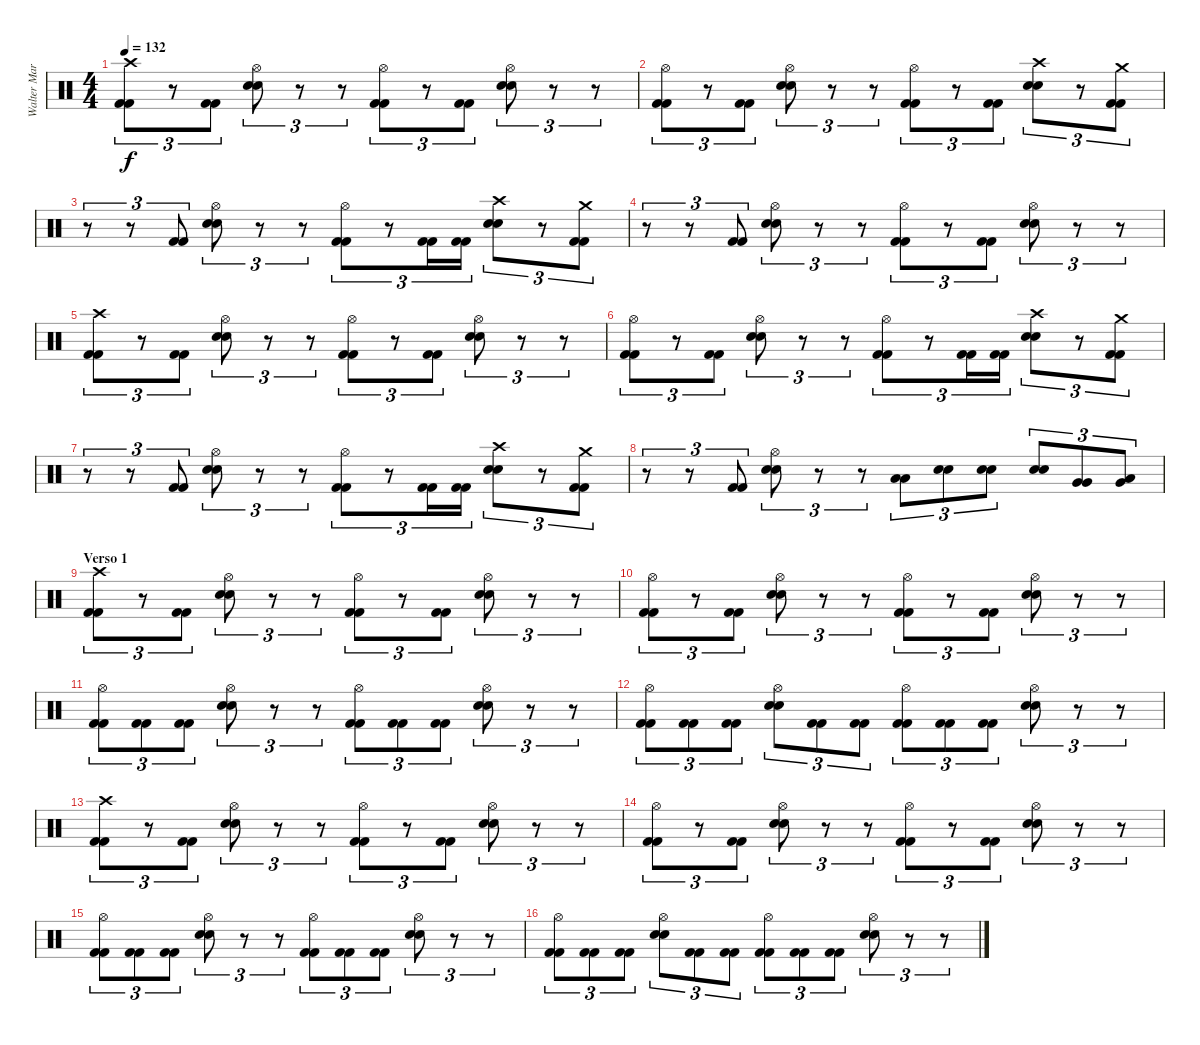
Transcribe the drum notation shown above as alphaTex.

\track ("Walter Martinez (bateria)" "Walter Mar") {instrument percussion}
\staff {score}
\articulation defaults
\ts (4 4)
\tempo 132
\clef neutral
\ks c
("Crash high (hit)" "Kick (hit) 2" "Kick (hit) 2").8{tu (3 2) dy f} r.8{tu (3 2)} ("Kick (hit) 2" "Kick (hit) 2").8{tu (3 2)} ("Hi-Hat (open)" "Snare (hit) 2" "Snare (hit) 2").8{tu (3 2)} r.8{tu (3 2)} r.8{tu (3 2)} ("Hi-Hat (open)" "Kick (hit) 2" "Kick (hit) 2").8{tu (3 2)} r.8{tu (3 2)} ("Kick (hit) 2" "Kick (hit) 2").8{tu (3 2)} ("Hi-Hat (open)" "Snare (hit) 2" "Snare (hit) 2").8{tu (3 2)} r.8{tu (3 2)} r.8{tu (3 2)} |
("Hi-Hat (open)" "Kick (hit) 2" "Kick (hit) 2").8{tu (3 2)} r.8{tu (3 2)} ("Kick (hit) 2" "Kick (hit) 2").8{tu (3 2)} ("Hi-Hat (open)" "Snare (hit) 2" "Snare (hit) 2").8{tu (3 2)} r.8{tu (3 2)} r.8{tu (3 2)} ("Hi-Hat (open)" "Kick (hit) 2" "Kick (hit) 2").8{tu (3 2)} r.8{tu (3 2)} ("Kick (hit) 2" "Kick (hit) 2").8{tu (3 2)} ("Crash high (hit)" "Snare (hit) 2" "Snare (hit) 2").8{tu (3 2)} r.8{tu (3 2)} ("Crash medium (hit)" "Kick (hit) 2" "Kick (hit) 2").8{tu (3 2)} |
r.8{tu (3 2)} r.8{tu (3 2)} ("Kick (hit) 2" "Kick (hit) 2").8{tu (3 2)} ("Hi-Hat (open)" "Snare (hit) 2" "Snare (hit) 2").8{tu (3 2)} r.8{tu (3 2)} r.8{tu (3 2)} ("Hi-Hat (open)" "Kick (hit) 2" "Kick (hit) 2").8{tu (3 2)} r.8{tu (3 2)} ("Kick (hit) 2" "Kick (hit) 2").16{tu (3 2)} ("Kick (hit) 2" "Kick (hit) 2").16{tu (3 2)} ("Crash high (hit)" "Snare (hit) 2" "Snare (hit) 2").8{tu (3 2)} r.8{tu (3 2)} ("Crash medium (hit)" "Kick (hit) 2" "Kick (hit) 2").8{tu (3 2)} |
r.8{tu (3 2)} r.8{tu (3 2)} ("Kick (hit) 2" "Kick (hit) 2").8{tu (3 2)} ("Hi-Hat (open)" "Snare (hit) 2" "Snare (hit) 2").8{tu (3 2)} r.8{tu (3 2)} r.8{tu (3 2)} ("Hi-Hat (open)" "Kick (hit) 2" "Kick (hit) 2").8{tu (3 2)} r.8{tu (3 2)} ("Kick (hit) 2" "Kick (hit) 2").8{tu (3 2)} ("Hi-Hat (open)" "Snare (hit) 2" "Snare (hit) 2").8{tu (3 2)} r.8{tu (3 2)} r.8{tu (3 2)} |
("Crash high (hit)" "Kick (hit) 2" "Kick (hit) 2").8{tu (3 2)} r.8{tu (3 2)} ("Kick (hit) 2" "Kick (hit) 2").8{tu (3 2)} ("Hi-Hat (open)" "Snare (hit) 2" "Snare (hit) 2").8{tu (3 2)} r.8{tu (3 2)} r.8{tu (3 2)} ("Hi-Hat (open)" "Kick (hit) 2" "Kick (hit) 2").8{tu (3 2)} r.8{tu (3 2)} ("Kick (hit) 2" "Kick (hit) 2").8{tu (3 2)} ("Hi-Hat (open)" "Snare (hit) 2" "Snare (hit) 2").8{tu (3 2)} r.8{tu (3 2)} r.8{tu (3 2)} |
("Hi-Hat (open)" "Kick (hit) 2" "Kick (hit) 2").8{tu (3 2)} r.8{tu (3 2)} ("Kick (hit) 2" "Kick (hit) 2").8{tu (3 2)} ("Hi-Hat (open)" "Snare (hit) 2" "Snare (hit) 2").8{tu (3 2)} r.8{tu (3 2)} r.8{tu (3 2)} ("Hi-Hat (open)" "Kick (hit) 2" "Kick (hit) 2").8{tu (3 2)} r.8{tu (3 2)} ("Kick (hit) 2" "Kick (hit) 2").16{tu (3 2)} ("Kick (hit) 2" "Kick (hit) 2").16{tu (3 2)} ("Crash high (hit)" "Snare (hit) 2" "Snare (hit) 2").8{tu (3 2)} r.8{tu (3 2)} ("Crash medium (hit)" "Kick (hit) 2" "Kick (hit) 2").8{tu (3 2)} |
r.8{tu (3 2)} r.8{tu (3 2)} ("Kick (hit) 2" "Kick (hit) 2").8{tu (3 2)} ("Hi-Hat (open)" "Snare (hit) 2" "Snare (hit) 2").8{tu (3 2)} r.8{tu (3 2)} r.8{tu (3 2)} ("Hi-Hat (open)" "Kick (hit) 2" "Kick (hit) 2").8{tu (3 2)} r.8{tu (3 2)} ("Kick (hit) 2" "Kick (hit) 2").16{tu (3 2)} ("Kick (hit) 2" "Kick (hit) 2").16{tu (3 2)} ("Crash high (hit)" "Snare (hit) 2" "Snare (hit) 2").8{tu (3 2)} r.8{tu (3 2)} ("Crash medium (hit)" "Kick (hit) 2" "Kick (hit) 2").8{tu (3 2)} |
r.8{tu (3 2)} r.8{tu (3 2)} ("Kick (hit) 2" "Kick (hit) 2").8{tu (3 2)} ("Hi-Hat (open)" "Snare (hit) 2" "Snare (hit) 2").8{tu (3 2)} r.8{tu (3 2)} r.8{tu (3 2)} ("Low Tom (hit)" "Low Tom (hit)").8{tu (3 2)} ("Snare (hit) 2" "Snare (hit) 2").8{tu (3 2)} ("Snare (hit) 2" "Snare (hit) 2").8{tu (3 2)} ("Snare (hit) 2" "Snare (hit) 2").8{tu (3 2)} ("Very Low Tom (hit)" "Very Low Tom (hit)").8{tu (3 2)} ("Very Low Tom (hit)" "Low Floor Tom (hit)").8{tu (3 2)} |
\section ("" "Verso 1")
("Crash high (hit)" "Kick (hit) 2" "Kick (hit) 2").8{tu (3 2)} r.8{tu (3 2)} ("Kick (hit) 2" "Kick (hit) 2").8{tu (3 2)} ("Hi-Hat (open)" "Snare (hit) 2" "Snare (hit) 2").8{tu (3 2)} r.8{tu (3 2)} r.8{tu (3 2)} ("Hi-Hat (open)" "Kick (hit) 2" "Kick (hit) 2").8{tu (3 2)} r.8{tu (3 2)} ("Kick (hit) 2" "Kick (hit) 2").8{tu (3 2)} ("Hi-Hat (open)" "Snare (hit) 2" "Snare (hit) 2").8{tu (3 2)} r.8{tu (3 2)} r.8{tu (3 2)} |
("Hi-Hat (open)" "Kick (hit) 2" "Kick (hit) 2").8{tu (3 2)} r.8{tu (3 2)} ("Kick (hit) 2" "Kick (hit) 2").8{tu (3 2)} ("Hi-Hat (open)" "Snare (hit) 2" "Snare (hit) 2").8{tu (3 2)} r.8{tu (3 2)} r.8{tu (3 2)} ("Hi-Hat (open)" "Kick (hit) 2" "Kick (hit) 2").8{tu (3 2)} r.8{tu (3 2)} ("Kick (hit) 2" "Kick (hit) 2").8{tu (3 2)} ("Hi-Hat (open)" "Snare (hit) 2" "Snare (hit) 2").8{tu (3 2)} r.8{tu (3 2)} r.8{tu (3 2)} |
("Hi-Hat (open)" "Kick (hit) 2" "Kick (hit) 2").8{tu (3 2)} ("Kick (hit) 2" "Kick (hit) 2").8{tu (3 2)} ("Kick (hit) 2" "Kick (hit) 2").8{tu (3 2)} ("Hi-Hat (open)" "Snare (hit) 2" "Snare (hit) 2").8{tu (3 2)} r.8{tu (3 2)} r.8{tu (3 2)} ("Hi-Hat (open)" "Kick (hit) 2" "Kick (hit) 2").8{tu (3 2)} ("Kick (hit) 2" "Kick (hit) 2").8{tu (3 2)} ("Kick (hit) 2" "Kick (hit) 2").8{tu (3 2)} ("Hi-Hat (open)" "Snare (hit) 2" "Snare (hit) 2").8{tu (3 2)} r.8{tu (3 2)} r.8{tu (3 2)} |
("Hi-Hat (open)" "Kick (hit) 2" "Kick (hit) 2").8{tu (3 2)} ("Kick (hit) 2" "Kick (hit) 2").8{tu (3 2)} ("Kick (hit) 2" "Kick (hit) 2").8{tu (3 2)} ("Hi-Hat (open)" "Snare (hit) 2" "Snare (hit) 2").8{tu (3 2)} ("Kick (hit) 2" "Kick (hit) 2").8{tu (3 2)} ("Kick (hit) 2" "Kick (hit) 2").8{tu (3 2)} ("Hi-Hat (open)" "Kick (hit) 2" "Kick (hit) 2").8{tu (3 2)} ("Kick (hit) 2" "Kick (hit) 2").8{tu (3 2)} ("Kick (hit) 2" "Kick (hit) 2").8{tu (3 2)} ("Hi-Hat (open)" "Snare (hit) 2" "Snare (hit) 2").8{tu (3 2)} r.8{tu (3 2)} r.8{tu (3 2)} |
("Crash high (hit)" "Kick (hit) 2" "Kick (hit) 2").8{tu (3 2)} r.8{tu (3 2)} ("Kick (hit) 2" "Kick (hit) 2").8{tu (3 2)} ("Hi-Hat (open)" "Snare (hit) 2" "Snare (hit) 2").8{tu (3 2)} r.8{tu (3 2)} r.8{tu (3 2)} ("Hi-Hat (open)" "Kick (hit) 2" "Kick (hit) 2").8{tu (3 2)} r.8{tu (3 2)} ("Kick (hit) 2" "Kick (hit) 2").8{tu (3 2)} ("Hi-Hat (open)" "Snare (hit) 2" "Snare (hit) 2").8{tu (3 2)} r.8{tu (3 2)} r.8{tu (3 2)} |
("Hi-Hat (open)" "Kick (hit) 2" "Kick (hit) 2").8{tu (3 2)} r.8{tu (3 2)} ("Kick (hit) 2" "Kick (hit) 2").8{tu (3 2)} ("Hi-Hat (open)" "Snare (hit) 2" "Snare (hit) 2").8{tu (3 2)} r.8{tu (3 2)} r.8{tu (3 2)} ("Hi-Hat (open)" "Kick (hit) 2" "Kick (hit) 2").8{tu (3 2)} r.8{tu (3 2)} ("Kick (hit) 2" "Kick (hit) 2").8{tu (3 2)} ("Hi-Hat (open)" "Snare (hit) 2" "Snare (hit) 2").8{tu (3 2)} r.8{tu (3 2)} r.8{tu (3 2)} |
("Hi-Hat (open)" "Kick (hit) 2" "Kick (hit) 2").8{tu (3 2)} ("Kick (hit) 2" "Kick (hit) 2").8{tu (3 2)} ("Kick (hit) 2" "Kick (hit) 2").8{tu (3 2)} ("Hi-Hat (open)" "Snare (hit) 2" "Snare (hit) 2").8{tu (3 2)} r.8{tu (3 2)} r.8{tu (3 2)} ("Hi-Hat (open)" "Kick (hit) 2" "Kick (hit) 2").8{tu (3 2)} ("Kick (hit) 2" "Kick (hit) 2").8{tu (3 2)} ("Kick (hit) 2" "Kick (hit) 2").8{tu (3 2)} ("Hi-Hat (open)" "Snare (hit) 2" "Snare (hit) 2").8{tu (3 2)} r.8{tu (3 2)} r.8{tu (3 2)} |
("Hi-Hat (open)" "Kick (hit) 2" "Kick (hit) 2").8{tu (3 2)} ("Kick (hit) 2" "Kick (hit) 2").8{tu (3 2)} ("Kick (hit) 2" "Kick (hit) 2").8{tu (3 2)} ("Hi-Hat (open)" "Snare (hit) 2" "Snare (hit) 2").8{tu (3 2)} ("Kick (hit) 2" "Kick (hit) 2").8{tu (3 2)} ("Kick (hit) 2" "Kick (hit) 2").8{tu (3 2)} ("Hi-Hat (open)" "Kick (hit) 2" "Kick (hit) 2").8{tu (3 2)} ("Kick (hit) 2" "Kick (hit) 2").8{tu (3 2)} ("Kick (hit) 2" "Kick (hit) 2").8{tu (3 2)} ("Hi-Hat (open)" "Snare (hit) 2" "Snare (hit) 2").8{tu (3 2)} r.8{tu (3 2)} r.8{tu (3 2)}
